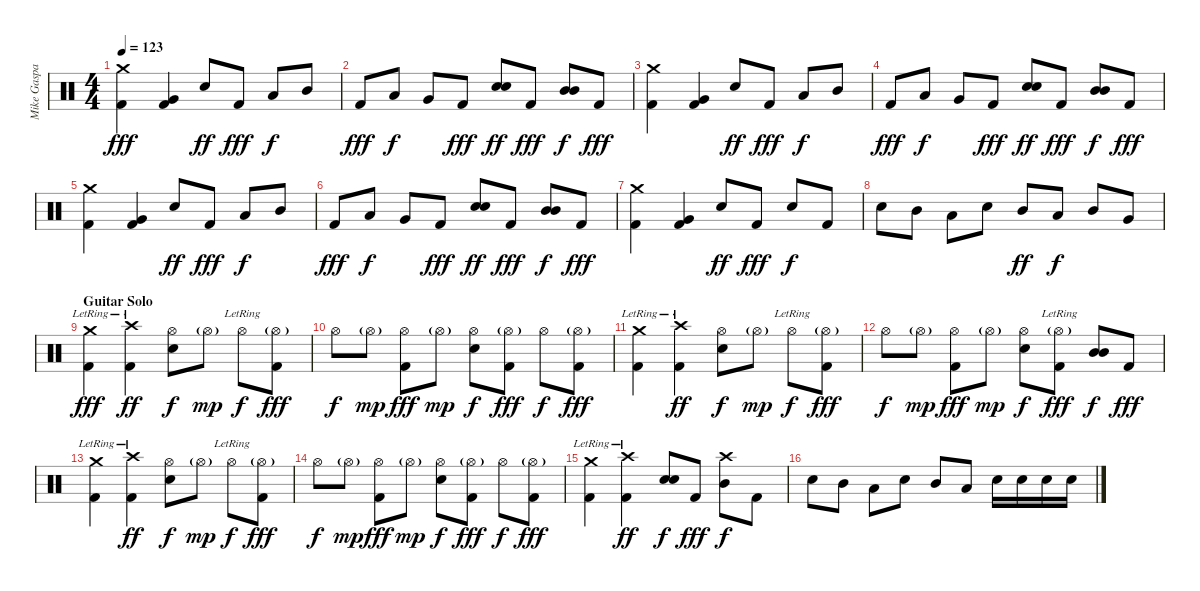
\track ("Mike Gaspar (Drums)" "Mike Gaspa") {instrument percussion}
\staff {score}
\articulation defaults
\ts (4 4)
\tempo 123
\clef neutral
\ks c
("Crash medium (hit)" "Kick (hit) 2").4{dy fff} ("Very Low Tom (hit)" "Kick (hit) 2").4 "Snare (hit) 2".8{dy ff} "Kick (hit) 2".8{dy fff} "Low Tom (hit)".8{dy f} "Mid Tom (hit)".8 |
"Kick (hit) 2".8{dy fff} "Low Tom (hit)".8{dy f} "Very Low Tom (hit)".8 "Kick (hit) 2".8{dy fff} ("Snare (hit) 2" "Snare (hit) 2").8{bd 60 dy ff} "Kick (hit) 2".8{dy fff} ("Mid Tom (hit)" "Mid Tom (hit)").8{bd 60 dy f} "Kick (hit) 2".8{dy fff} |
("Crash medium (hit)" "Kick (hit) 2").4 ("Very Low Tom (hit)" "Kick (hit) 2").4 "Snare (hit) 2".8{dy ff} "Kick (hit) 2".8{dy fff} "Low Tom (hit)".8{dy f} "Mid Tom (hit)".8 |
"Kick (hit) 2".8{dy fff} "Low Tom (hit)".8{dy f} "Very Low Tom (hit)".8 "Kick (hit) 2".8{dy fff} ("Snare (hit) 2" "Snare (hit) 2").8{bd 60 dy ff} "Kick (hit) 2".8{dy fff} ("Mid Tom (hit)" "Mid Tom (hit)").8{bd 60 dy f} "Kick (hit) 2".8{dy fff} |
("Crash medium (hit)" "Kick (hit) 2").4 ("Very Low Tom (hit)" "Kick (hit) 2").4 "Snare (hit) 2".8{dy ff} "Kick (hit) 2".8{dy fff} "Low Tom (hit)".8{dy f} "Mid Tom (hit)".8 |
"Kick (hit) 2".8{dy fff} "Low Tom (hit)".8{dy f} "Very Low Tom (hit)".8 "Kick (hit) 2".8{dy fff} ("Snare (hit) 2" "Snare (hit) 2").8{bd 60 dy ff} "Kick (hit) 2".8{dy fff} ("Mid Tom (hit)" "Mid Tom (hit)").8{bd 60 dy f} "Kick (hit) 2".8{dy fff} |
("Crash medium (hit)" "Kick (hit) 2").4 ("Very Low Tom (hit)" "Kick (hit) 2").4 "Snare (hit) 2".8{dy ff} "Kick (hit) 2".8{dy fff} "Snare (hit) 2".8{dy f} "Kick (hit) 2".8 |
"Snare (hit) 2".8 "Mid Tom (hit)".8 "Low Tom (hit)".8 "Snare (hit) 2".8 "Mid Tom (hit)".8{dy ff} "Low Tom (hit)".8{dy f} "Mid Tom (hit)".8 "Very Low Tom (hit)".8 |
\section ("" "Guitar Solo")
("Crash medium (hit)"{lr} "Kick (hit) 2").4{dy fff} ("Crash high (hit)"{lr} "Kick (hit) 2").4{dy ff} ("Hi-Hat (open)" "Snare (hit) 2").8{dy f} "Hi-Hat (open)"{g}.8{dy mp} "Hi-Hat (open)"{lr}.8{dy f} ("Hi-Hat (open)"{g} "Kick (hit) 2").8{dy fff} |
"Hi-Hat (open)".8{dy f} "Hi-Hat (open)"{g}.8{dy mp} ("Hi-Hat (open)" "Kick (hit) 2").8{dy fff} "Hi-Hat (open)"{g}.8{dy mp} ("Hi-Hat (open)" "Snare (hit) 2").8{dy f} ("Hi-Hat (open)"{g} "Kick (hit) 2").8{dy fff} "Hi-Hat (open)".8{dy f} ("Hi-Hat (open)"{g} "Kick (hit) 2").8{dy fff} |
("Crash medium (hit)"{lr} "Kick (hit) 2").4 ("Crash high (hit)"{lr} "Kick (hit) 2").4{dy ff} ("Hi-Hat (open)" "Snare (hit) 2").8{dy f} "Hi-Hat (open)"{g}.8{dy mp} "Hi-Hat (open)"{lr}.8{dy f} ("Hi-Hat (open)"{g} "Kick (hit) 2").8{dy fff} |
"Hi-Hat (open)".8{dy f} "Hi-Hat (open)"{g}.8{dy mp} ("Hi-Hat (open)" "Kick (hit) 2").8{dy fff} "Hi-Hat (open)"{g}.8{dy mp} ("Hi-Hat (open)" "Snare (hit) 2").8{dy f} ("Hi-Hat (open)"{g lr} "Kick (hit) 2").8{dy fff} ("Mid Tom (hit)" "Mid Tom (hit)").8{bd 60 dy f} "Kick (hit) 2".8{dy fff} |
("Crash medium (hit)"{lr} "Kick (hit) 2").4 ("Crash high (hit)"{lr} "Kick (hit) 2").4{dy ff} ("Hi-Hat (open)" "Snare (hit) 2").8{dy f} "Hi-Hat (open)"{g}.8{dy mp} "Hi-Hat (open)"{lr}.8{dy f} ("Hi-Hat (open)"{g} "Kick (hit) 2").8{dy fff} |
"Hi-Hat (open)".8{dy f} "Hi-Hat (open)"{g}.8{dy mp} ("Hi-Hat (open)" "Kick (hit) 2").8{dy fff} "Hi-Hat (open)"{g}.8{dy mp} ("Hi-Hat (open)" "Snare (hit) 2").8{dy f} ("Hi-Hat (open)"{g} "Kick (hit) 2").8{dy fff} "Hi-Hat (open)".8{dy f} ("Hi-Hat (open)"{g} "Kick (hit) 2").8{dy fff} |
("Crash medium (hit)"{lr} "Kick (hit) 2").4 ("Crash high (hit)"{lr} "Kick (hit) 2").4{dy ff} ("Snare (hit) 2" "Snare (hit) 2").8{bd 60 dy f} "Kick (hit) 2".8{dy fff} ("Crash high (hit)" "Mid Tom (hit)").8{dy f} "Kick (hit) 2".8 |
"Snare (hit) 2".8 "Mid Tom (hit)".8 "Low Tom (hit)".8 "Snare (hit) 2".8 "Mid Tom (hit)".8 "Low Tom (hit)".8 "Snare (hit) 2".16 "Snare (hit) 2".16 "Snare (hit) 2".16 "Snare (hit) 2".16
